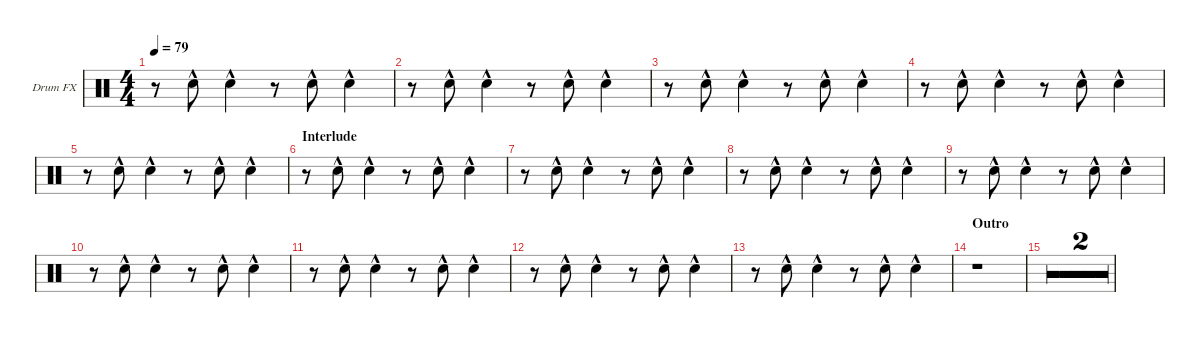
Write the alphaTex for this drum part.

\defaultSystemsLayout 4
\hideDynamics
\bracketExtendMode groupsimilarinstruments
\firstSystemTrackNameOrientation horizontal
\otherSystemsTrackNameOrientation horizontal
\track ("Drumkit FX" "Drum FX") {multiBarRest instrument percussion}
\staff {score}
\articulation defaults
\ts (4 4)
\tempo 79
\clef neutral
\ks c
r.8{dy fff} "Snare (hit) 2"{hac}.8{dy mf} "Snare (hit) 2"{hac}.4{dy fff} r.8 "Snare (hit) 2"{hac}.8{dy mf} "Snare (hit) 2"{hac}.4{dy fff} |
r.8 "Snare (hit) 2"{hac}.8{dy mf} "Snare (hit) 2"{hac}.4{dy fff} r.8 "Snare (hit) 2"{hac}.8{dy mf} "Snare (hit) 2"{hac}.4{dy fff} |
r.8 "Snare (hit) 2"{hac}.8{dy mf} "Snare (hit) 2"{hac}.4{dy fff} r.8 "Snare (hit) 2"{hac}.8{dy mf} "Snare (hit) 2"{hac}.4{dy fff} |
r.8 "Snare (hit) 2"{hac}.8{dy mf} "Snare (hit) 2"{hac}.4{dy fff} r.8 "Snare (hit) 2"{hac}.8{dy mf} "Snare (hit) 2"{hac}.4{dy fff} |
r.8 "Snare (hit) 2"{hac}.8{dy mf} "Snare (hit) 2"{hac}.4{dy fff} r.8 "Snare (hit) 2"{hac}.8{dy mf} "Snare (hit) 2"{hac}.4{dy fff} |
\section ("" "Interlude")
r.8 "Snare (hit) 2"{hac}.8{dy mp} "Snare (hit) 2"{hac}.4 r.8 "Snare (hit) 2"{hac}.8 "Snare (hit) 2"{hac}.4 |
r.8 "Snare (hit) 2"{hac}.8 "Snare (hit) 2"{hac}.4 r.8 "Snare (hit) 2"{hac}.8 "Snare (hit) 2"{hac}.4 |
r.8 "Snare (hit) 2"{hac}.8 "Snare (hit) 2"{hac}.4 r.8 "Snare (hit) 2"{hac}.8 "Snare (hit) 2"{hac}.4 |
r.8 "Snare (hit) 2"{hac}.8 "Snare (hit) 2"{hac}.4 r.8 "Snare (hit) 2"{hac}.8 "Snare (hit) 2"{hac}.4 |
r.8 "Snare (hit) 2"{hac}.8 "Snare (hit) 2"{hac}.4 r.8 "Snare (hit) 2"{hac}.8 "Snare (hit) 2"{hac}.4 |
r.8 "Snare (hit) 2"{hac}.8 "Snare (hit) 2"{hac}.4 r.8 "Snare (hit) 2"{hac}.8 "Snare (hit) 2"{hac}.4 |
r.8 "Snare (hit) 2"{hac}.8 "Snare (hit) 2"{hac}.4 r.8 "Snare (hit) 2"{hac}.8 "Snare (hit) 2"{hac}.4 |
r.8 "Snare (hit) 2"{hac}.8 "Snare (hit) 2"{hac}.4 r.8 "Snare (hit) 2"{hac}.8 "Snare (hit) 2"{hac}.4 |
\section ("" "Outro")
r.1 |
r.1 |
r.1
